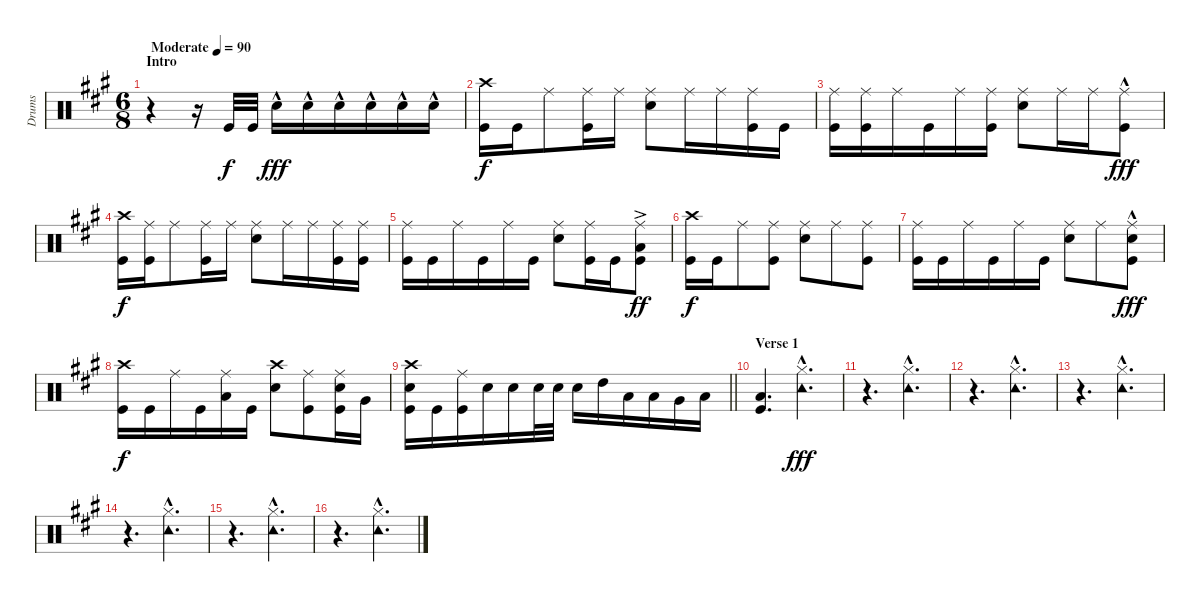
\track ("Drums" "Drums") {instrument percussion}
\staff {score}
\articulation defaults
\ts (6 8)
\section ("" "Intro")
\tempo (90 "Moderate")
\clef neutral
\ks a
r.4{dy f} r.16 "Kick (hit)".32 "Kick (hit)".32 "Snare (hit) 2"{hac}.16{dy fff} "Snare (hit) 2"{hac}.16 "Snare (hit) 2"{hac}.16 "Snare (hit) 2"{hac}.16 "Snare (hit) 2"{hac}.16 "Snare (hit) 2"{hac}.16 |
("Crash high (hit)" "Kick (hit)").16{dy f} "Kick (hit)".16 "Ride (middle)".8 ("Ride (middle)" "Kick (hit)").16 "Ride (middle)".16 ("Ride (middle)" "Snare (hit) 2").8 "Ride (middle)".16 "Ride (middle)".16 ("Ride (middle)" "Kick (hit)").16 "Kick (hit)".16 |
("Ride (middle)" "Kick (hit)").16 ("Ride (middle)" "Kick (hit)").16 "Ride (middle)".16 "Kick (hit)".16 "Ride (middle)".16 ("Ride (middle)" "Kick (hit)").16 ("Ride (middle)" "Snare (hit) 2").8 "Ride (middle)".16 "Ride (middle)".16 ("Ride (middle)"{hac} "Kick (hit)").8{dy fff} |
("Crash high (hit)" "Kick (hit)").16{dy f} ("Kick (hit)" "Ride (middle)").16 "Ride (middle)".8 ("Ride (middle)" "Kick (hit)").16 "Ride (middle)".16 ("Ride (middle)" "Snare (hit) 2").8 "Ride (middle)".16 "Ride (middle)".16 ("Ride (middle)" "Kick (hit)").16 ("Ride (middle)" "Kick (hit)").16 |
("Ride (middle)" "Kick (hit)").16 "Kick (hit)".16 "Ride (middle)".16 "Kick (hit)".16 "Ride (middle)".16 "Kick (hit)".16 ("Ride (middle)" "Snare (hit) 2").8 ("Ride (middle)" "Kick (hit)").16 "Kick (hit)".16 ("Ride (middle)"{ac} "Kick (hit)"{ac} "Low Tom (hit)"{ac}).8{dy ff} |
("Crash high (hit)" "Kick (hit)").16{dy f} "Kick (hit)".16 "Ride (middle)".8 ("Ride (middle)" "Kick (hit)").8 ("Ride (middle)" "Snare (hit) 2").8 "Ride (middle)".8 ("Ride (middle)" "Kick (hit)").8 |
("Ride (middle)" "Kick (hit)").16 "Kick (hit)".16 "Ride (middle)".16 "Kick (hit)".16 "Ride (middle)".16 "Kick (hit)".16 ("Ride (middle)" "Snare (hit) 2").8 "Ride (middle)".8 ("Ride (middle)"{hac} "Kick (hit)" "Snare (hit) 2").8{dy fff} |
("Kick (hit)" "Crash high (hit)").16{dy f} "Kick (hit)".16 "Ride (middle)".16 "Kick (hit)".16 ("Low Tom (hit)" "Ride (middle)").16 "Kick (hit)".16 ("Snare (hit) 2" "Crash high (hit)").8 ("Ride (middle)" "Kick (hit)").8 ("Ride (middle)" "Kick (hit)" "Snare (hit) 2").16 "Very Low Tom (hit)".16 |
\barLineRight lightlight
("Crash high (hit)" "Kick (hit)" "Snare (hit) 2").16 "Kick (hit)".16 ("Ride (middle)" "Kick (hit)").16 "Snare (hit) 2".16 "Snare (hit) 2".16 "Snare (hit) 2".32 "Snare (hit) 2".32 "Snare (hit) 2".16 "High Tom (hit)".16 "Low Tom (hit)".16 "Low Tom (hit)".16 "Very Low Tom (hit)".16 "Low Floor Tom (hit)".16 |
\section ("" "Verse 1")
("Kick (hit)" "Low Tom (hit)").4{d} ("Hi-Hat (closed)"{hac} "Tambourine (hit)"{hac}).4{d dy fff} |
r.4{d} ("Hi-Hat (closed)"{hac} "Tambourine (hit)"{hac}).4{d} |
r.4{d} ("Tambourine (hit)"{hac} "Hi-Hat (closed)"{hac}).4{d} |
r.4{d} ("Tambourine (hit)"{hac} "Hi-Hat (closed)"{hac}).4{d} |
r.4{d} ("Tambourine (hit)"{hac} "Hi-Hat (closed)"{hac}).4{d} |
r.4{d} ("Tambourine (hit)"{hac} "Hi-Hat (closed)"{hac}).4{d} |
r.4{d} ("Tambourine (hit)"{hac} "Hi-Hat (closed)"{hac}).4{d}
